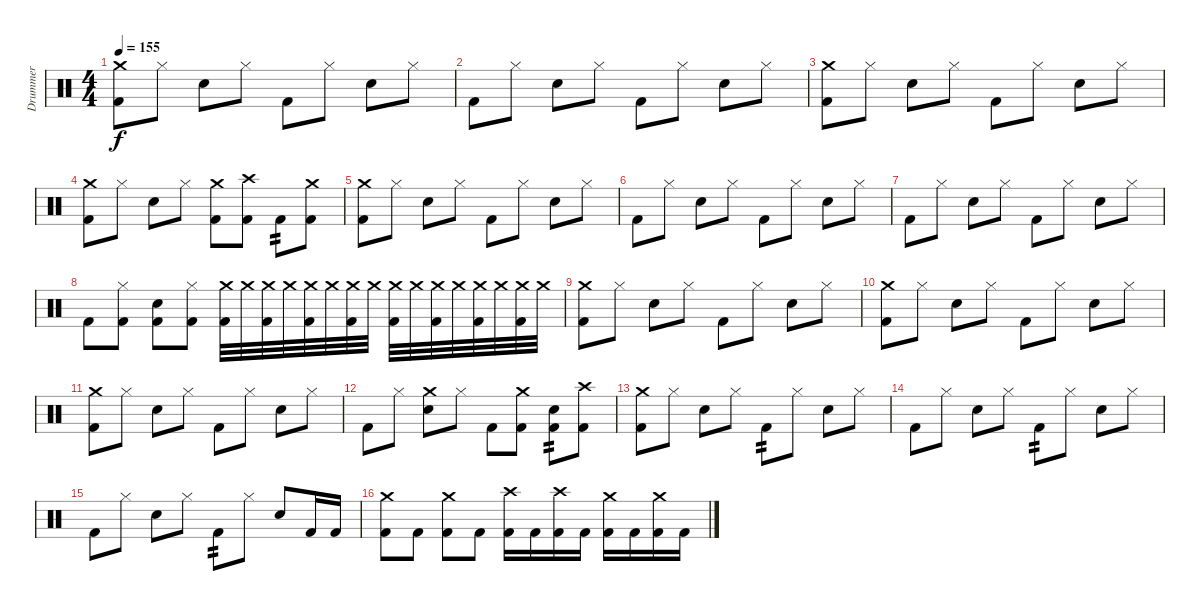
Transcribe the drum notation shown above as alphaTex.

\track ("Drummer" "Drummer") {instrument percussion}
\staff {score}
\articulation defaults
\ts (4 4)
\tempo 155
\clef neutral
\ks c
("Crash medium (hit)" "Kick (hit) 2").8{dy f} "Hi-Hat (closed)".8 "Electric Snare (hit)".8 "Hi-Hat (closed)".8 "Kick (hit) 2".8 "Hi-Hat (closed)".8 "Electric Snare (hit)".8 "Hi-Hat (closed)".8 |
"Kick (hit) 2".8 "Hi-Hat (closed)".8 "Electric Snare (hit)".8 "Hi-Hat (closed)".8 "Kick (hit) 2".8 "Hi-Hat (closed)".8 "Electric Snare (hit)".8 "Hi-Hat (closed)".8 |
("Crash medium (hit)" "Kick (hit) 2").8 "Hi-Hat (closed)".8 "Electric Snare (hit)".8 "Hi-Hat (closed)".8 "Kick (hit) 2".8 "Hi-Hat (closed)".8 "Electric Snare (hit)".8 "Hi-Hat (closed)".8 |
("Crash medium (hit)" "Kick (hit) 2").8 "Hi-Hat (closed)".8 "Electric Snare (hit)".8 "Hi-Hat (closed)".8 ("Crash medium (hit)" "Kick (hit) 2").8 ("Crash high (hit)" "Kick (hit) 2").8 "Kick (hit) 2".8{tp 2} ("Crash medium (hit)" "Kick (hit) 2").8 |
("Crash medium (hit)" "Kick (hit) 2").8 "Hi-Hat (closed)".8 "Electric Snare (hit)".8 "Hi-Hat (closed)".8 "Kick (hit) 2".8 "Hi-Hat (closed)".8 "Electric Snare (hit)".8 "Hi-Hat (closed)".8 |
"Kick (hit) 2".8 "Hi-Hat (closed)".8 "Electric Snare (hit)".8 "Hi-Hat (closed)".8 "Kick (hit) 2".8 "Hi-Hat (closed)".8 "Electric Snare (hit)".8 "Hi-Hat (closed)".8 |
"Kick (hit) 2".8 "Hi-Hat (closed)".8 "Electric Snare (hit)".8 "Hi-Hat (closed)".8 "Kick (hit) 2".8 "Hi-Hat (closed)".8 "Electric Snare (hit)".8 "Hi-Hat (closed)".8 |
"Kick (hit) 2".8 ("Hi-Hat (closed)" "Kick (hit) 2").8 ("Electric Snare (hit)" "Kick (hit) 2").8 ("Hi-Hat (closed)" "Kick (hit) 2").8 ("Crash medium (hit)" "Kick (hit) 2").32 "Crash medium (hit)".32 ("Crash medium (hit)" "Kick (hit) 2").32 "Crash medium (hit)".32 ("Crash medium (hit)" "Kick (hit) 2").32 "Crash medium (hit)".32 ("Crash medium (hit)" "Kick (hit) 2").32 "Crash medium (hit)".32 ("Crash medium (hit)" "Kick (hit) 2").32 "Crash medium (hit)".32 ("Crash medium (hit)" "Kick (hit) 2").32 "Crash medium (hit)".32 ("Crash medium (hit)" "Kick (hit) 2").32 "Crash medium (hit)".32 ("Crash medium (hit)" "Kick (hit) 2").32 "Crash medium (hit)".32 |
("Crash medium (hit)" "Kick (hit) 2").8 "Hi-Hat (closed)".8 "Electric Snare (hit)".8 "Hi-Hat (closed)".8 "Kick (hit) 2".8 "Hi-Hat (closed)".8 "Electric Snare (hit)".8 "Hi-Hat (closed)".8 |
("Crash medium (hit)" "Kick (hit) 2").8 "Hi-Hat (closed)".8 "Electric Snare (hit)".8 "Hi-Hat (closed)".8 "Kick (hit) 2".8 "Hi-Hat (closed)".8 "Electric Snare (hit)".8 "Hi-Hat (closed)".8 |
("Crash medium (hit)" "Kick (hit) 2").8 "Hi-Hat (closed)".8 "Electric Snare (hit)".8 "Hi-Hat (closed)".8 "Kick (hit) 2".8 "Hi-Hat (closed)".8 "Electric Snare (hit)".8 "Hi-Hat (closed)".8 |
"Kick (hit) 2".8 "Hi-Hat (closed)".8 ("Crash medium (hit)" "Electric Snare (hit)").8 "Hi-Hat (closed)".8 "Kick (hit) 2".8 ("Crash medium (hit)" "Kick (hit) 2").8 ("Electric Snare (hit)" "Kick (hit) 2").8{tp 2} ("Crash high (hit)" "Kick (hit) 2").8 |
("Crash medium (hit)" "Kick (hit) 2").8 "Hi-Hat (closed)".8 "Electric Snare (hit)".8 "Hi-Hat (closed)".8 "Kick (hit) 2".8{tp 2} "Hi-Hat (closed)".8 "Electric Snare (hit)".8 "Hi-Hat (closed)".8 |
"Kick (hit) 2".8 "Hi-Hat (closed)".8 "Electric Snare (hit)".8 "Hi-Hat (closed)".8 "Kick (hit) 2".8{tp 2} "Hi-Hat (closed)".8 "Electric Snare (hit)".8 "Hi-Hat (closed)".8 |
"Kick (hit) 2".8 "Hi-Hat (closed)".8 "Electric Snare (hit)".8 "Hi-Hat (closed)".8 "Kick (hit) 2".8{tp 2} "Hi-Hat (closed)".8 "Electric Snare (hit)".8 "Kick (hit) 2".16 "Kick (hit) 2".16 |
("Crash medium (hit)" "Kick (hit) 2").8 "Kick (hit) 2".8 ("Crash medium (hit)" "Kick (hit) 2").8 "Kick (hit) 2".8 ("Crash high (hit)" "Kick (hit) 2").16 "Kick (hit) 2".16 ("Crash high (hit)" "Kick (hit) 2").16 "Kick (hit) 2".16 ("Crash medium (hit)" "Kick (hit) 2").16 "Kick (hit) 2".16 ("Crash medium (hit)" "Kick (hit) 2").16 "Kick (hit) 2".16
